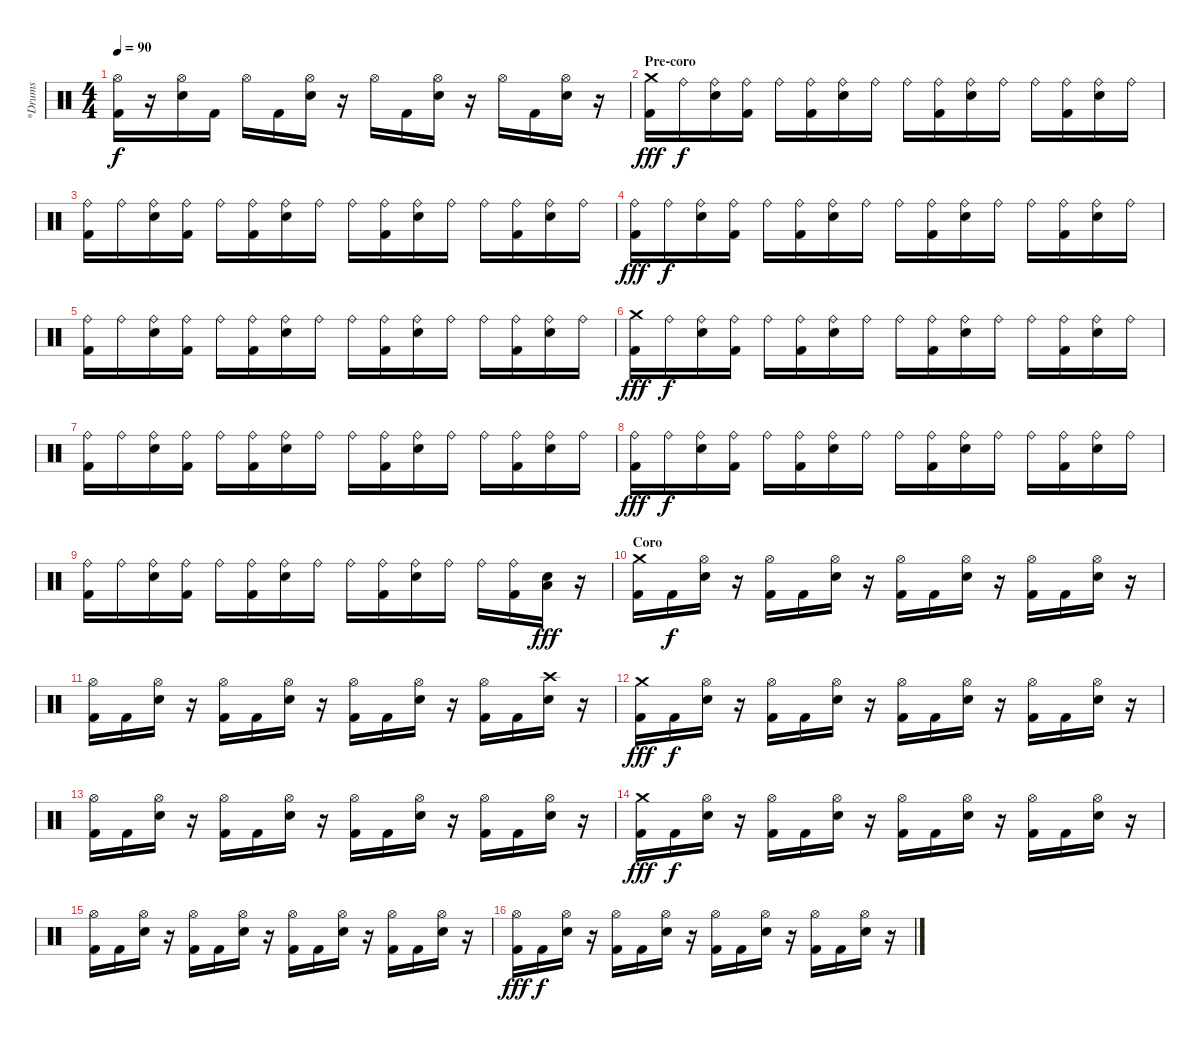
\track ("*Drums" "*Drums") {instrument percussion}
\staff {score}
\articulation defaults
\ts (4 4)
\tempo 90
\clef neutral
\ks c
("Hi-Hat (open)" "Kick (hit) 2").16{dy f} r.16 ("Hi-Hat (open)" "Electric Snare (hit)").16 "Kick (hit) 2".16 "Hi-Hat (open)".16 "Kick (hit) 2".16 ("Hi-Hat (open)" "Electric Snare (hit)").16 r.16 "Hi-Hat (open)".16 "Kick (hit) 2".16 ("Hi-Hat (open)" "Electric Snare (hit)").16 r.16 "Hi-Hat (open)".16 "Kick (hit) 2".16 ("Hi-Hat (open)" "Electric Snare (hit)").16 r.16 |
\section ("" "Pre-coro")
("Crash medium (hit)" "Kick (hit) 2").16{dy fff} "Ride (bell)".16{dy f} ("Ride (bell)" "Electric Snare (hit)").16 ("Ride (bell)" "Kick (hit) 2").16 "Ride (bell)".16 ("Ride (bell)" "Kick (hit) 2").16 ("Ride (bell)" "Electric Snare (hit)").16 "Ride (bell)".16 "Ride (bell)".16 ("Ride (bell)" "Kick (hit) 2").16 ("Ride (bell)" "Electric Snare (hit)").16 "Ride (bell)".16 "Ride (bell)".16 ("Ride (bell)" "Kick (hit) 2").16 ("Ride (bell)" "Electric Snare (hit)").16 "Ride (bell)".16 |
("Ride (bell)" "Kick (hit) 2").16 "Ride (bell)".16 ("Ride (bell)" "Electric Snare (hit)").16 ("Ride (bell)" "Kick (hit) 2").16 "Ride (bell)".16 ("Ride (bell)" "Kick (hit) 2").16 ("Ride (bell)" "Electric Snare (hit)").16 "Ride (bell)".16 "Ride (bell)".16 ("Ride (bell)" "Kick (hit) 2").16 ("Ride (bell)" "Electric Snare (hit)").16 "Ride (bell)".16 "Ride (bell)".16 ("Ride (bell)" "Kick (hit) 2").16 ("Ride (bell)" "Electric Snare (hit)").16 "Ride (bell)".16 |
("Ride (bell)" "Kick (hit) 2").16{dy fff} "Ride (bell)".16{dy f} ("Ride (bell)" "Electric Snare (hit)").16 ("Ride (bell)" "Kick (hit) 2").16 "Ride (bell)".16 ("Ride (bell)" "Kick (hit) 2").16 ("Ride (bell)" "Electric Snare (hit)").16 "Ride (bell)".16 "Ride (bell)".16 ("Ride (bell)" "Kick (hit) 2").16 ("Ride (bell)" "Electric Snare (hit)").16 "Ride (bell)".16 "Ride (bell)".16 ("Ride (bell)" "Kick (hit) 2").16 ("Ride (bell)" "Electric Snare (hit)").16 "Ride (bell)".16 |
("Ride (bell)" "Kick (hit) 2").16 "Ride (bell)".16 ("Ride (bell)" "Electric Snare (hit)").16 ("Ride (bell)" "Kick (hit) 2").16 "Ride (bell)".16 ("Ride (bell)" "Kick (hit) 2").16 ("Ride (bell)" "Electric Snare (hit)").16 "Ride (bell)".16 "Ride (bell)".16 ("Ride (bell)" "Kick (hit) 2").16 ("Ride (bell)" "Electric Snare (hit)").16 "Ride (bell)".16 "Ride (bell)".16 ("Ride (bell)" "Kick (hit) 2").16 ("Ride (bell)" "Electric Snare (hit)").16 "Ride (bell)".16 |
("Crash medium (hit)" "Kick (hit) 2").16{dy fff} "Ride (bell)".16{dy f} ("Ride (bell)" "Electric Snare (hit)").16 ("Ride (bell)" "Kick (hit) 2").16 "Ride (bell)".16 ("Ride (bell)" "Kick (hit) 2").16 ("Ride (bell)" "Electric Snare (hit)").16 "Ride (bell)".16 "Ride (bell)".16 ("Ride (bell)" "Kick (hit) 2").16 ("Ride (bell)" "Electric Snare (hit)").16 "Ride (bell)".16 "Ride (bell)".16 ("Ride (bell)" "Kick (hit) 2").16 ("Ride (bell)" "Electric Snare (hit)").16 "Ride (bell)".16 |
("Ride (bell)" "Kick (hit) 2").16 "Ride (bell)".16 ("Ride (bell)" "Electric Snare (hit)").16 ("Ride (bell)" "Kick (hit) 2").16 "Ride (bell)".16 ("Ride (bell)" "Kick (hit) 2").16 ("Ride (bell)" "Electric Snare (hit)").16 "Ride (bell)".16 "Ride (bell)".16 ("Ride (bell)" "Kick (hit) 2").16 ("Ride (bell)" "Electric Snare (hit)").16 "Ride (bell)".16 "Ride (bell)".16 ("Ride (bell)" "Kick (hit) 2").16 ("Ride (bell)" "Electric Snare (hit)").16 "Ride (bell)".16 |
("Ride (bell)" "Kick (hit) 2").16{dy fff} "Ride (bell)".16{dy f} ("Ride (bell)" "Electric Snare (hit)").16 ("Ride (bell)" "Kick (hit) 2").16 "Ride (bell)".16 ("Ride (bell)" "Kick (hit) 2").16 ("Ride (bell)" "Electric Snare (hit)").16 "Ride (bell)".16 "Ride (bell)".16 ("Ride (bell)" "Kick (hit) 2").16 ("Ride (bell)" "Electric Snare (hit)").16 "Ride (bell)".16 "Ride (bell)".16 ("Ride (bell)" "Kick (hit) 2").16 ("Ride (bell)" "Electric Snare (hit)").16 "Ride (bell)".16 |
("Ride (bell)" "Kick (hit) 2").16 "Ride (bell)".16 ("Ride (bell)" "Electric Snare (hit)").16 ("Ride (bell)" "Kick (hit) 2").16 "Ride (bell)".16 ("Ride (bell)" "Kick (hit) 2").16 ("Ride (bell)" "Electric Snare (hit)").16 "Ride (bell)".16 "Ride (bell)".16 ("Ride (bell)" "Kick (hit) 2").16 ("Ride (bell)" "Electric Snare (hit)").16 "Ride (bell)".16 "Ride (bell)".16 ("Ride (bell)" "Kick (hit) 2").16 ("Electric Snare (hit)" "Low Floor Tom (hit)").16{dy fff} r.16 |
\section ("" "Coro")
("Crash medium (hit)" "Kick (hit) 2").16 "Kick (hit) 2".16{dy f} ("Hi-Hat (open)" "Electric Snare (hit)").16 r.16 ("Hi-Hat (open)" "Kick (hit) 2").16 "Kick (hit) 2".16 ("Hi-Hat (open)" "Electric Snare (hit)").16 r.16 ("Hi-Hat (open)" "Kick (hit) 2").16 "Kick (hit) 2".16 ("Hi-Hat (open)" "Electric Snare (hit)").16 r.16 ("Hi-Hat (open)" "Kick (hit) 2").16 "Kick (hit) 2".16 ("Hi-Hat (open)" "Electric Snare (hit)").16 r.16 |
("Hi-Hat (open)" "Kick (hit) 2").16 "Kick (hit) 2".16 ("Hi-Hat (open)" "Electric Snare (hit)").16 r.16 ("Hi-Hat (open)" "Kick (hit) 2").16 "Kick (hit) 2".16 ("Hi-Hat (open)" "Electric Snare (hit)").16 r.16 ("Hi-Hat (open)" "Kick (hit) 2").16 "Kick (hit) 2".16 ("Hi-Hat (open)" "Electric Snare (hit)").16 r.16 ("Hi-Hat (open)" "Kick (hit) 2").16 "Kick (hit) 2".16 ("Crash high (hit)" "Electric Snare (hit)").16 r.16 |
("Crash medium (hit)" "Kick (hit) 2").16{dy fff} "Kick (hit) 2".16{dy f} ("Hi-Hat (open)" "Electric Snare (hit)").16 r.16 ("Hi-Hat (open)" "Kick (hit) 2").16 "Kick (hit) 2".16 ("Hi-Hat (open)" "Electric Snare (hit)").16 r.16 ("Hi-Hat (open)" "Kick (hit) 2").16 "Kick (hit) 2".16 ("Hi-Hat (open)" "Electric Snare (hit)").16 r.16 ("Hi-Hat (open)" "Kick (hit) 2").16 "Kick (hit) 2".16 ("Hi-Hat (open)" "Electric Snare (hit)").16 r.16 |
("Hi-Hat (open)" "Kick (hit) 2").16 "Kick (hit) 2".16 ("Hi-Hat (open)" "Electric Snare (hit)").16 r.16 ("Hi-Hat (open)" "Kick (hit) 2").16 "Kick (hit) 2".16 ("Hi-Hat (open)" "Electric Snare (hit)").16 r.16 ("Hi-Hat (open)" "Kick (hit) 2").16 "Kick (hit) 2".16 ("Hi-Hat (open)" "Electric Snare (hit)").16 r.16 ("Hi-Hat (open)" "Kick (hit) 2").16 "Kick (hit) 2".16 ("Hi-Hat (open)" "Electric Snare (hit)").16 r.16 |
("Crash medium (hit)" "Kick (hit) 2").16{dy fff} "Kick (hit) 2".16{dy f} ("Hi-Hat (open)" "Electric Snare (hit)").16 r.16 ("Hi-Hat (open)" "Kick (hit) 2").16 "Kick (hit) 2".16 ("Hi-Hat (open)" "Electric Snare (hit)").16 r.16 ("Hi-Hat (open)" "Kick (hit) 2").16 "Kick (hit) 2".16 ("Hi-Hat (open)" "Electric Snare (hit)").16 r.16 ("Hi-Hat (open)" "Kick (hit) 2").16 "Kick (hit) 2".16 ("Hi-Hat (open)" "Electric Snare (hit)").16 r.16 |
("Hi-Hat (open)" "Kick (hit) 2").16 "Kick (hit) 2".16 ("Hi-Hat (open)" "Electric Snare (hit)").16 r.16 ("Hi-Hat (open)" "Kick (hit) 2").16 "Kick (hit) 2".16 ("Hi-Hat (open)" "Electric Snare (hit)").16 r.16 ("Hi-Hat (open)" "Kick (hit) 2").16 "Kick (hit) 2".16 ("Hi-Hat (open)" "Electric Snare (hit)").16 r.16 ("Hi-Hat (open)" "Kick (hit) 2").16 "Kick (hit) 2".16 ("Hi-Hat (open)" "Electric Snare (hit)").16 r.16 |
("Hi-Hat (open)" "Kick (hit) 2").16{dy fff} "Kick (hit) 2".16{dy f} ("Hi-Hat (open)" "Electric Snare (hit)").16 r.16 ("Hi-Hat (open)" "Kick (hit) 2").16 "Kick (hit) 2".16 ("Hi-Hat (open)" "Electric Snare (hit)").16 r.16 ("Hi-Hat (open)" "Kick (hit) 2").16 "Kick (hit) 2".16 ("Hi-Hat (open)" "Electric Snare (hit)").16 r.16 ("Hi-Hat (open)" "Kick (hit) 2").16 "Kick (hit) 2".16 ("Hi-Hat (open)" "Electric Snare (hit)").16 r.16
